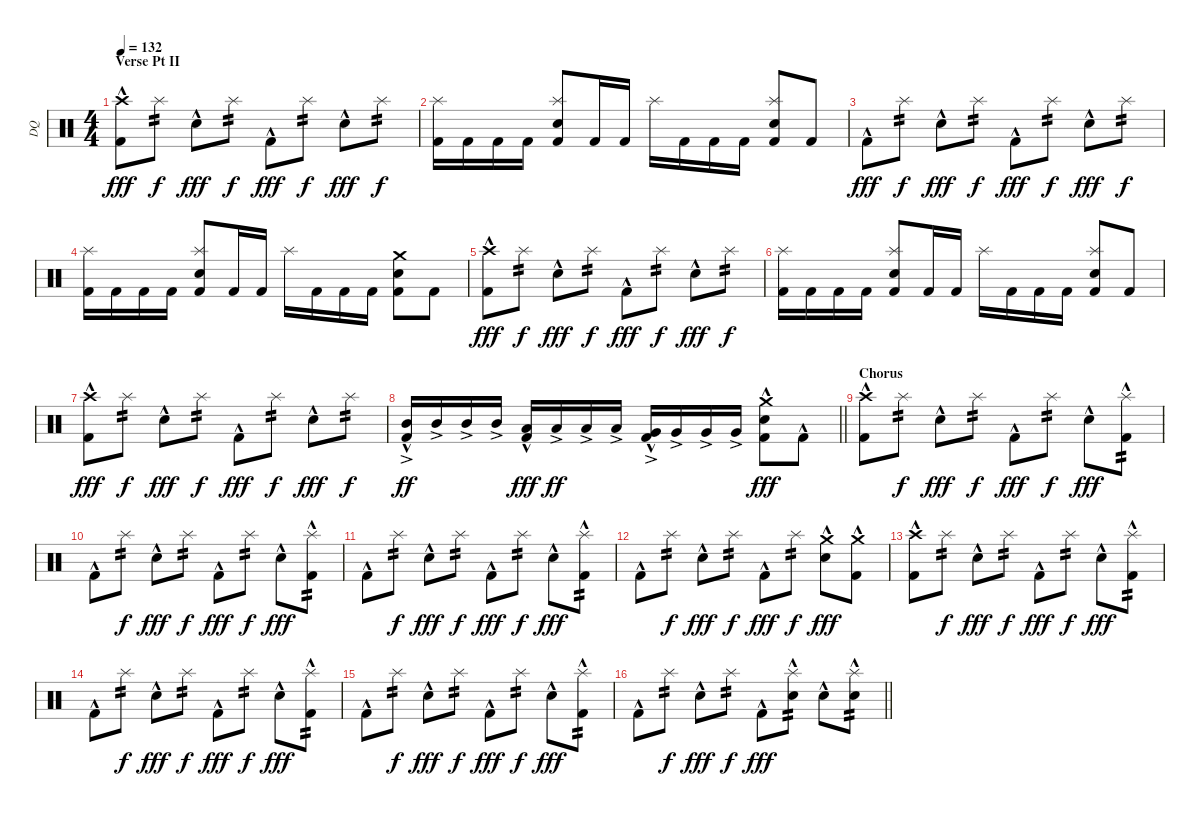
\track ("DQ" "DQ") {instrument percussion}
\staff {score}
\articulation defaults
\ts (4 4)
\section ("" "Verse Pt II")
\tempo 132
\clef neutral
\ks c
("Kick (hit) 2"{hac} "Crash high (hit)").8{dy fff} "Splash (hit)".8{tp 2 dy f} "Snare (hit) 2"{hac}.8{dy fff} "Splash (hit)".8{tp 2 dy f} "Kick (hit) 2"{hac}.8{dy fff} "Splash (hit)".8{tp 2 dy f} "Snare (hit) 2"{hac}.8{dy fff} "Splash (hit)".8{tp 2 dy f} |
("Kick (hit) 2" "Splash (hit)").16 "Kick (hit) 2".16 "Kick (hit) 2".16 "Kick (hit) 2".16 ("Kick (hit) 2" "Snare (hit) 2" "Splash (hit)").8 "Kick (hit) 2".16 "Kick (hit) 2".16 "Splash (hit)".16 "Kick (hit) 2".16 "Kick (hit) 2".16 "Kick (hit) 2".16 ("Kick (hit) 2" "Snare (hit) 2" "Splash (hit)").8 "Kick (hit) 2".8 |
"Kick (hit) 2"{hac}.8{dy fff} "Splash (hit)".8{tp 2 dy f} "Snare (hit) 2"{hac}.8{dy fff} "Splash (hit)".8{tp 2 dy f} "Kick (hit) 2"{hac}.8{dy fff} "Splash (hit)".8{tp 2 dy f} "Snare (hit) 2"{hac}.8{dy fff} "Splash (hit)".8{tp 2 dy f} |
("Kick (hit) 2" "Splash (hit)").16 "Kick (hit) 2".16 "Kick (hit) 2".16 "Kick (hit) 2".16 ("Kick (hit) 2" "Snare (hit) 2" "Splash (hit)").8 "Kick (hit) 2".16 "Kick (hit) 2".16 "Splash (hit)".16 "Kick (hit) 2".16 "Kick (hit) 2".16 "Kick (hit) 2".16 ("Kick (hit) 2" "Snare (hit) 2" "Crash medium (hit)").8 "Kick (hit) 2".8 |
("Kick (hit) 2"{hac} "Crash high (hit)").8{dy fff} "Splash (hit)".8{tp 2 dy f} "Snare (hit) 2"{hac}.8{dy fff} "Splash (hit)".8{tp 2 dy f} "Kick (hit) 2"{hac}.8{dy fff} "Splash (hit)".8{tp 2 dy f} "Snare (hit) 2"{hac}.8{dy fff} "Splash (hit)".8{tp 2 dy f} |
("Kick (hit) 2" "Splash (hit)").16 "Kick (hit) 2".16 "Kick (hit) 2".16 "Kick (hit) 2".16 ("Kick (hit) 2" "Snare (hit) 2" "Splash (hit)").8 "Kick (hit) 2".16 "Kick (hit) 2".16 "Splash (hit)".16 "Kick (hit) 2".16 "Kick (hit) 2".16 "Kick (hit) 2".16 ("Kick (hit) 2" "Snare (hit) 2" "Splash (hit)").8 "Kick (hit) 2".8 |
("Kick (hit) 2"{hac} "Crash high (hit)").8{dy fff} "Splash (hit)".8{tp 2 dy f} "Snare (hit) 2"{hac}.8{dy fff} "Splash (hit)".8{tp 2 dy f} "Kick (hit) 2"{hac}.8{dy fff} "Splash (hit)".8{tp 2 dy f} "Snare (hit) 2"{hac}.8{dy fff} "Splash (hit)".8{tp 2 dy f} |
\barLineRight lightlight
("Kick (hit) 2"{hac} "Mid Tom (hit)"{ac}).16{dy ff} "Mid Tom (hit)"{ac}.16 "Mid Tom (hit)"{ac}.16 "Mid Tom (hit)"{ac}.16 ("Kick (hit) 2"{hac} "Low Tom (hit)").16{dy fff} "Low Tom (hit)"{ac}.16{dy ff} "Low Tom (hit)"{ac}.16 "Low Tom (hit)"{ac}.16 ("Kick (hit) 2"{hac} "Very Low Tom (hit)"{ac}).16 "Very Low Tom (hit)"{ac}.16 "Very Low Tom (hit)"{ac}.16 "Very Low Tom (hit)"{ac}.16 ("Kick (hit) 2"{hac} "Snare (hit) 2"{hac} "Crash medium (hit)").8{dy fff} "Kick (hit) 2"{hac}.8 |
\section ("" "Chorus")
("Kick (hit) 2"{hac} "Crash high (hit)").8 "Splash (hit)".8{tp 2 dy f} "Snare (hit) 2"{hac}.8{dy fff} "Splash (hit)".8{tp 2 dy f} "Kick (hit) 2"{hac}.8{dy fff} "Splash (hit)".8{tp 2 dy f} "Snare (hit) 2"{hac}.8{dy fff} ("Kick (hit) 2"{hac} "Splash (hit)").8{tp 2} |
"Kick (hit) 2"{hac}.8 "Splash (hit)".8{tp 2 dy f} "Snare (hit) 2"{hac}.8{dy fff} "Splash (hit)".8{tp 2 dy f} "Kick (hit) 2"{hac}.8{dy fff} "Splash (hit)".8{tp 2 dy f} "Snare (hit) 2"{hac}.8{dy fff} ("Kick (hit) 2"{hac} "Splash (hit)").8{tp 2} |
"Kick (hit) 2"{hac}.8 "Splash (hit)".8{tp 2 dy f} "Snare (hit) 2"{hac}.8{dy fff} "Splash (hit)".8{tp 2 dy f} "Kick (hit) 2"{hac}.8{dy fff} "Splash (hit)".8{tp 2 dy f} "Snare (hit) 2"{hac}.8{dy fff} ("Kick (hit) 2"{hac} "Splash (hit)").8{tp 2} |
"Kick (hit) 2"{hac}.8 "Splash (hit)".8{tp 2 dy f} "Snare (hit) 2"{hac}.8{dy fff} "Splash (hit)".8{tp 2 dy f} "Kick (hit) 2"{hac}.8{dy fff} "Splash (hit)".8{tp 2 dy f} ("Snare (hit) 2"{hac} "Crash medium (hit)").8{dy fff} ("Kick (hit) 2"{hac} "Crash medium (hit)").8 |
("Kick (hit) 2"{hac} "Crash high (hit)").8 "Splash (hit)".8{tp 2 dy f} "Snare (hit) 2"{hac}.8{dy fff} "Splash (hit)".8{tp 2 dy f} "Kick (hit) 2"{hac}.8{dy fff} "Splash (hit)".8{tp 2 dy f} "Snare (hit) 2"{hac}.8{dy fff} ("Kick (hit) 2"{hac} "Splash (hit)").8{tp 2} |
"Kick (hit) 2"{hac}.8 "Splash (hit)".8{tp 2 dy f} "Snare (hit) 2"{hac}.8{dy fff} "Splash (hit)".8{tp 2 dy f} "Kick (hit) 2"{hac}.8{dy fff} "Splash (hit)".8{tp 2 dy f} "Snare (hit) 2"{hac}.8{dy fff} ("Kick (hit) 2"{hac} "Splash (hit)").8{tp 2} |
"Kick (hit) 2"{hac}.8 "Splash (hit)".8{tp 2 dy f} "Snare (hit) 2"{hac}.8{dy fff} "Splash (hit)".8{tp 2 dy f} "Kick (hit) 2"{hac}.8{dy fff} "Splash (hit)".8{tp 2 dy f} "Snare (hit) 2"{hac}.8{dy fff} ("Kick (hit) 2"{hac} "Splash (hit)").8{tp 2} |
\barLineRight lightlight "Kick (hit) 2"{hac}.8 "Splash (hit)".8{tp 2 dy f} "Snare (hit) 2"{hac}.8{dy fff} "Splash (hit)".8{tp 2 dy f} "Kick (hit) 2"{hac}.8{dy fff}
("Snare (hit) 2"{hac} "Splash (hit)").8{tp 2} "Snare (hit) 2"{hac}.8 ("Snare (hit) 2"{hac} "Splash (hit)").8{tp 2}
